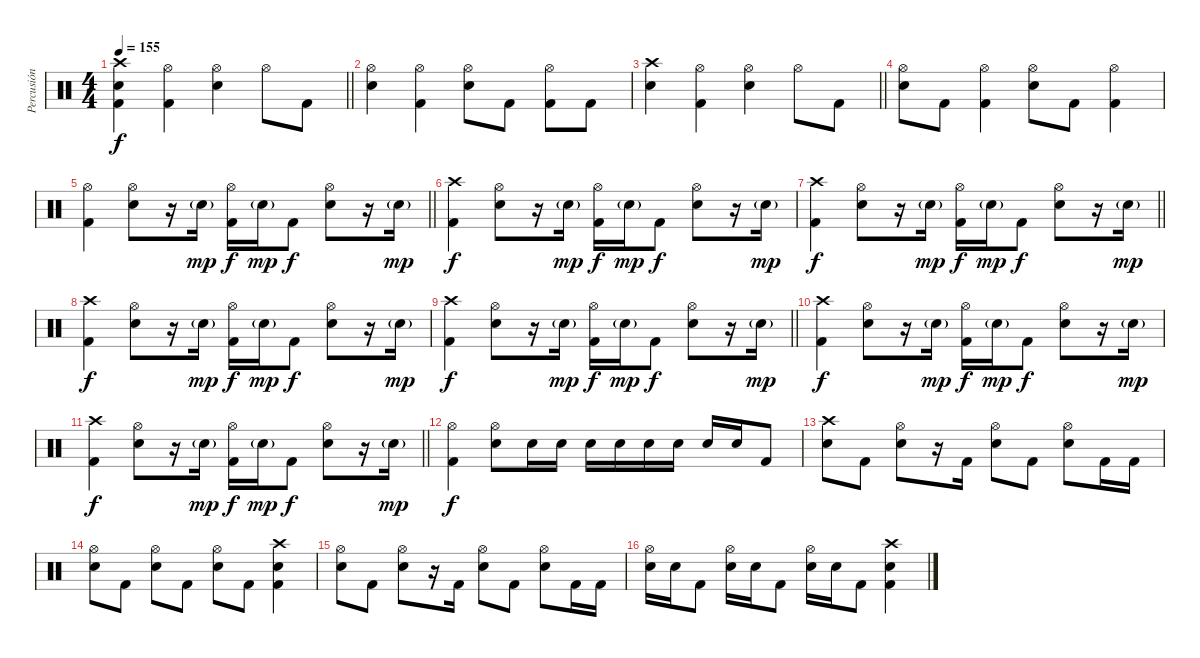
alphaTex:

\track ("Percusión" "Percusión") {instrument percussion}
\staff {score}
\articulation defaults
\ts (4 4)
\tempo 155
\clef neutral
\barLineRight lightlight
\ks c
("Crash high (hit)" "Snare (hit) 2" "Kick (hit) 2").4{dy f} ("Hi-Hat (open)" "Kick (hit) 2").4 ("Hi-Hat (open)" "Snare (hit) 2").4 "Hi-Hat (open)".8 "Kick (hit) 2".8 |
("Hi-Hat (open)" "Snare (hit) 2").4 ("Hi-Hat (open)" "Kick (hit) 2").4 ("Hi-Hat (open)" "Snare (hit) 2").8 "Kick (hit) 2".8 ("Hi-Hat (open)" "Kick (hit) 2").8 "Kick (hit) 2".8 |
\barLineRight lightlight
("Crash high (hit)" "Snare (hit) 2").4 ("Hi-Hat (open)" "Kick (hit) 2").4 ("Hi-Hat (open)" "Snare (hit) 2").4 "Hi-Hat (open)".8 "Kick (hit) 2".8 |
("Hi-Hat (open)" "Snare (hit) 2").8 "Kick (hit) 2".8 ("Hi-Hat (open)" "Kick (hit) 2").4 ("Hi-Hat (open)" "Snare (hit) 2").8 "Kick (hit) 2".8 ("Hi-Hat (open)" "Kick (hit) 2").4 |
\barLineRight lightlight
("Hi-Hat (open)" "Kick (hit) 2").4 ("Hi-Hat (open)" "Snare (hit) 2").8 r.16 "Snare (hit) 2"{g}.16{dy mp} ("Hi-Hat (open)" "Kick (hit) 2").16{dy f} "Snare (hit) 2"{g}.16{dy mp} "Kick (hit) 2".8{dy f} ("Hi-Hat (open)" "Snare (hit) 2").8 r.16 "Snare (hit) 2"{g}.16{dy mp} |
("Crash high (hit)" "Kick (hit) 2").4{dy f} ("Hi-Hat (open)" "Snare (hit) 2").8 r.16 "Snare (hit) 2"{g}.16{dy mp} ("Hi-Hat (open)" "Kick (hit) 2").16{dy f} "Snare (hit) 2"{g}.16{dy mp} "Kick (hit) 2".8{dy f} ("Hi-Hat (open)" "Snare (hit) 2").8 r.16 "Snare (hit) 2"{g}.16{dy mp} |
\barLineRight lightlight
("Crash high (hit)" "Kick (hit) 2").4{dy f} ("Hi-Hat (open)" "Snare (hit) 2").8 r.16 "Snare (hit) 2"{g}.16{dy mp} ("Hi-Hat (open)" "Kick (hit) 2").16{dy f} "Snare (hit) 2"{g}.16{dy mp} "Kick (hit) 2".8{dy f} ("Hi-Hat (open)" "Snare (hit) 2").8 r.16 "Snare (hit) 2"{g}.16{dy mp} |
("Crash high (hit)" "Kick (hit) 2").4{dy f} ("Hi-Hat (open)" "Snare (hit) 2").8 r.16 "Snare (hit) 2"{g}.16{dy mp} ("Hi-Hat (open)" "Kick (hit) 2").16{dy f} "Snare (hit) 2"{g}.16{dy mp} "Kick (hit) 2".8{dy f} ("Hi-Hat (open)" "Snare (hit) 2").8 r.16 "Snare (hit) 2"{g}.16{dy mp} |
\barLineRight lightlight
("Crash high (hit)" "Kick (hit) 2").4{dy f} ("Hi-Hat (open)" "Snare (hit) 2").8 r.16 "Snare (hit) 2"{g}.16{dy mp} ("Hi-Hat (open)" "Kick (hit) 2").16{dy f} "Snare (hit) 2"{g}.16{dy mp} "Kick (hit) 2".8{dy f} ("Hi-Hat (open)" "Snare (hit) 2").8 r.16 "Snare (hit) 2"{g}.16{dy mp} |
("Crash high (hit)" "Kick (hit) 2").4{dy f} ("Hi-Hat (open)" "Snare (hit) 2").8 r.16 "Snare (hit) 2"{g}.16{dy mp} ("Hi-Hat (open)" "Kick (hit) 2").16{dy f} "Snare (hit) 2"{g}.16{dy mp} "Kick (hit) 2".8{dy f} ("Hi-Hat (open)" "Snare (hit) 2").8 r.16 "Snare (hit) 2"{g}.16{dy mp} |
\barLineRight lightlight
("Crash high (hit)" "Kick (hit) 2").4{dy f} ("Hi-Hat (open)" "Snare (hit) 2").8 r.16 "Snare (hit) 2"{g}.16{dy mp} ("Hi-Hat (open)" "Kick (hit) 2").16{dy f} "Snare (hit) 2"{g}.16{dy mp} "Kick (hit) 2".8{dy f} ("Hi-Hat (open)" "Snare (hit) 2").8 r.16 "Snare (hit) 2"{g}.16{dy mp} |
("Hi-Hat (open)" "Kick (hit) 2").4{dy f} ("Hi-Hat (open)" "Snare (hit) 2").8 "Snare (hit) 2".16 "Snare (hit) 2".16 "Snare (hit) 2".16 "Snare (hit) 2".16 "Snare (hit) 2".16 "Snare (hit) 2".16 "Snare (hit) 2".16 "Snare (hit) 2".16 "Kick (hit) 2".8 |
("Crash high (hit)" "Snare (hit) 2").8 "Kick (hit) 2".8 ("Hi-Hat (open)" "Snare (hit) 2").8 r.16 "Kick (hit) 2".16 ("Hi-Hat (open)" "Snare (hit) 2").8 "Kick (hit) 2".8 ("Hi-Hat (open)" "Snare (hit) 2").8 "Kick (hit) 2".16 "Kick (hit) 2".16 |
("Hi-Hat (open)" "Snare (hit) 2").8 "Kick (hit) 2".8 ("Hi-Hat (open)" "Snare (hit) 2").8 "Kick (hit) 2".8 ("Hi-Hat (open)" "Snare (hit) 2").8 "Kick (hit) 2".8 ("Crash high (hit)" "Snare (hit) 2" "Kick (hit) 2").4 |
("Hi-Hat (open)" "Snare (hit) 2").8 "Kick (hit) 2".8 ("Hi-Hat (open)" "Snare (hit) 2").8 r.16 "Kick (hit) 2".16 ("Hi-Hat (open)" "Snare (hit) 2").8 "Kick (hit) 2".8 ("Hi-Hat (open)" "Snare (hit) 2").8 "Kick (hit) 2".16 "Kick (hit) 2".16 |
("Hi-Hat (open)" "Snare (hit) 2").16 "Snare (hit) 2".16 "Kick (hit) 2".8 ("Hi-Hat (open)" "Snare (hit) 2").16 "Snare (hit) 2".16 "Kick (hit) 2".8 ("Hi-Hat (open)" "Snare (hit) 2").16 "Snare (hit) 2".16 "Kick (hit) 2".8 ("Crash high (hit)" "Snare (hit) 2" "Kick (hit) 2").4
